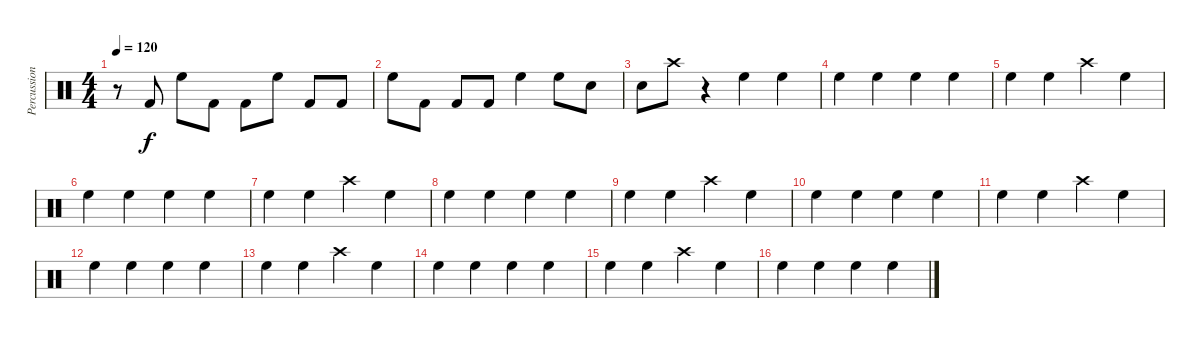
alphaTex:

\track ("Percussion" "Percussion") {instrument percussion}
\staff {score}
\articulation defaults
\ts (4 4)
\tempo 120
\clef neutral
\ks c
r.8{dy f} "Kick (hit) 2".8 "High Floor Tom (hit)".8 "Kick (hit) 2".8 "Kick (hit) 2".8 "High Floor Tom (hit)".8 "Kick (hit) 2".8 "Kick (hit) 2".8 |
"High Floor Tom (hit)".8 "Kick (hit) 2".8 "Kick (hit) 2".8 "Kick (hit) 2".8 "High Floor Tom (hit)".4 "High Floor Tom (hit)".8 "Electric Snare (hit)".8 |
"Electric Snare (hit)".8 "Crash high (hit)".8 r.4 "High Floor Tom (hit)".4 "High Floor Tom (hit)".4 |
"High Floor Tom (hit)".4 "High Floor Tom (hit)".4 "High Floor Tom (hit)".4 "High Floor Tom (hit)".4 |
"High Floor Tom (hit)".4 "High Floor Tom (hit)".4 "Crash high (hit)".4 "High Floor Tom (hit)".4 |
"High Floor Tom (hit)".4 "High Floor Tom (hit)".4 "High Floor Tom (hit)".4 "High Floor Tom (hit)".4 |
"High Floor Tom (hit)".4 "High Floor Tom (hit)".4 "Crash high (hit)".4 "High Floor Tom (hit)".4 |
"High Floor Tom (hit)".4 "High Floor Tom (hit)".4 "High Floor Tom (hit)".4 "High Floor Tom (hit)".4 |
"High Floor Tom (hit)".4 "High Floor Tom (hit)".4 "Crash high (hit)".4 "High Floor Tom (hit)".4 |
"High Floor Tom (hit)".4 "High Floor Tom (hit)".4 "High Floor Tom (hit)".4 "High Floor Tom (hit)".4 |
"High Floor Tom (hit)".4 "High Floor Tom (hit)".4 "Crash high (hit)".4 "High Floor Tom (hit)".4 |
"High Floor Tom (hit)".4 "High Floor Tom (hit)".4 "High Floor Tom (hit)".4 "High Floor Tom (hit)".4 |
"High Floor Tom (hit)".4 "High Floor Tom (hit)".4 "Crash high (hit)".4 "High Floor Tom (hit)".4 |
"High Floor Tom (hit)".4 "High Floor Tom (hit)".4 "High Floor Tom (hit)".4 "High Floor Tom (hit)".4 |
"High Floor Tom (hit)".4 "High Floor Tom (hit)".4 "Crash high (hit)".4 "High Floor Tom (hit)".4 |
"High Floor Tom (hit)".4 "High Floor Tom (hit)".4 "High Floor Tom (hit)".4 "High Floor Tom (hit)".4
